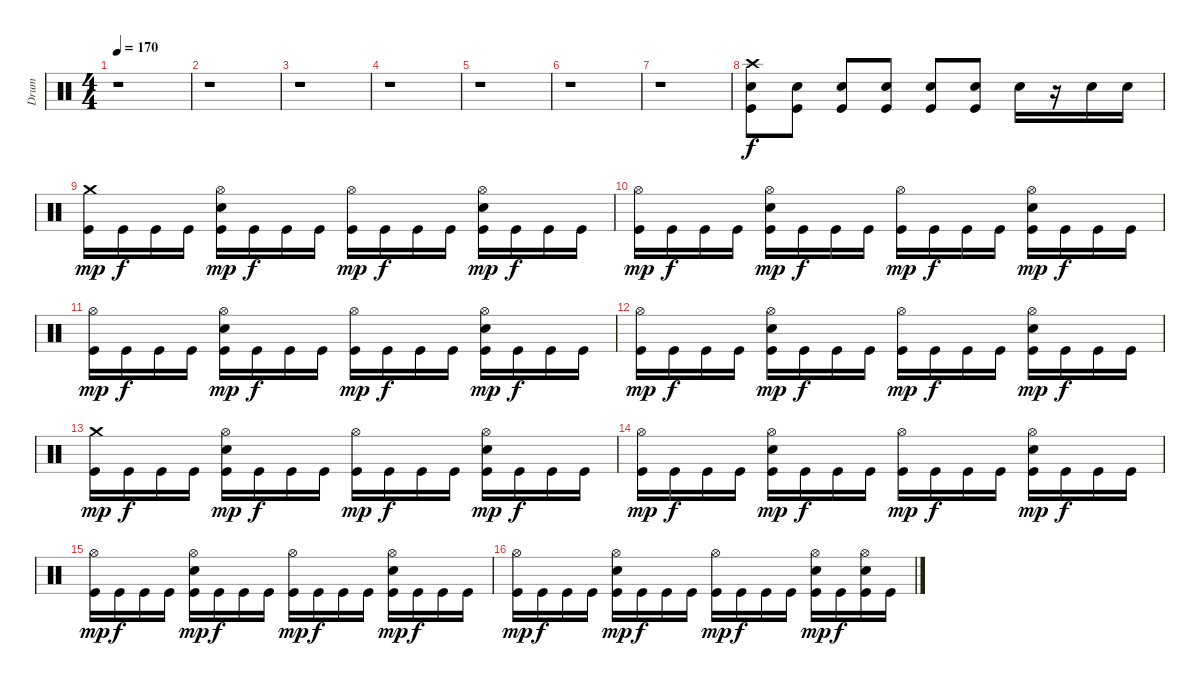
\track ("Drum" "Drum") {instrument percussion}
\staff {score}
\articulation defaults
\ts (4 4)
\tempo 170
\clef neutral
\ks c
r.1{dy f} |
r.1 |
r.1 |
r.1 |
r.1 |
r.1 |
r.1 |
("Crash high (hit)" "Snare (hit) 2" "Kick (hit)").8 ("Snare (hit) 2" "Kick (hit)").8 ("Snare (hit) 2" "Kick (hit)").8 ("Snare (hit) 2" "Kick (hit)").8 ("Snare (hit) 2" "Kick (hit)").8 ("Snare (hit) 2" "Kick (hit)").8 "Snare (hit) 2".16 r.16 "Snare (hit) 2".16 "Snare (hit) 2".16 |
("Crash medium (hit)" "Kick (hit)").16{dy mp} "Kick (hit)".16{dy f} "Kick (hit)".16 "Kick (hit)".16 ("Hi-Hat (open)" "Snare (hit) 2" "Kick (hit)").16{dy mp} "Kick (hit)".16{dy f} "Kick (hit)".16 "Kick (hit)".16 ("Hi-Hat (open)" "Kick (hit)").16{dy mp} "Kick (hit)".16{dy f} "Kick (hit)".16 "Kick (hit)".16 ("Hi-Hat (open)" "Snare (hit) 2" "Kick (hit)").16{dy mp} "Kick (hit)".16{dy f} "Kick (hit)".16 "Kick (hit)".16 |
("Hi-Hat (open)" "Kick (hit)").16{dy mp} "Kick (hit)".16{dy f} "Kick (hit)".16 "Kick (hit)".16 ("Hi-Hat (open)" "Snare (hit) 2" "Kick (hit)").16{dy mp} "Kick (hit)".16{dy f} "Kick (hit)".16 "Kick (hit)".16 ("Hi-Hat (open)" "Kick (hit)").16{dy mp} "Kick (hit)".16{dy f} "Kick (hit)".16 "Kick (hit)".16 ("Hi-Hat (open)" "Snare (hit) 2" "Kick (hit)").16{dy mp} "Kick (hit)".16{dy f} "Kick (hit)".16 "Kick (hit)".16 |
("Hi-Hat (open)" "Kick (hit)").16{dy mp} "Kick (hit)".16{dy f} "Kick (hit)".16 "Kick (hit)".16 ("Hi-Hat (open)" "Snare (hit) 2" "Kick (hit)").16{dy mp} "Kick (hit)".16{dy f} "Kick (hit)".16 "Kick (hit)".16 ("Hi-Hat (open)" "Kick (hit)").16{dy mp} "Kick (hit)".16{dy f} "Kick (hit)".16 "Kick (hit)".16 ("Hi-Hat (open)" "Snare (hit) 2" "Kick (hit)").16{dy mp} "Kick (hit)".16{dy f} "Kick (hit)".16 "Kick (hit)".16 |
("Hi-Hat (open)" "Kick (hit)").16{dy mp} "Kick (hit)".16{dy f} "Kick (hit)".16 "Kick (hit)".16 ("Hi-Hat (open)" "Snare (hit) 2" "Kick (hit)").16{dy mp} "Kick (hit)".16{dy f} "Kick (hit)".16 "Kick (hit)".16 ("Hi-Hat (open)" "Kick (hit)").16{dy mp} "Kick (hit)".16{dy f} "Kick (hit)".16 "Kick (hit)".16 ("Hi-Hat (open)" "Snare (hit) 2" "Kick (hit)").16{dy mp} "Kick (hit)".16{dy f} "Kick (hit)".16 "Kick (hit)".16 |
("Crash medium (hit)" "Kick (hit)").16{dy mp} "Kick (hit)".16{dy f} "Kick (hit)".16 "Kick (hit)".16 ("Hi-Hat (open)" "Snare (hit) 2" "Kick (hit)").16{dy mp} "Kick (hit)".16{dy f} "Kick (hit)".16 "Kick (hit)".16 ("Hi-Hat (open)" "Kick (hit)").16{dy mp} "Kick (hit)".16{dy f} "Kick (hit)".16 "Kick (hit)".16 ("Hi-Hat (open)" "Snare (hit) 2" "Kick (hit)").16{dy mp} "Kick (hit)".16{dy f} "Kick (hit)".16 "Kick (hit)".16 |
("Hi-Hat (open)" "Kick (hit)").16{dy mp} "Kick (hit)".16{dy f} "Kick (hit)".16 "Kick (hit)".16 ("Hi-Hat (open)" "Snare (hit) 2" "Kick (hit)").16{dy mp} "Kick (hit)".16{dy f} "Kick (hit)".16 "Kick (hit)".16 ("Hi-Hat (open)" "Kick (hit)").16{dy mp} "Kick (hit)".16{dy f} "Kick (hit)".16 "Kick (hit)".16 ("Hi-Hat (open)" "Snare (hit) 2" "Kick (hit)").16{dy mp} "Kick (hit)".16{dy f} "Kick (hit)".16 "Kick (hit)".16 |
("Hi-Hat (open)" "Kick (hit)").16{dy mp} "Kick (hit)".16{dy f} "Kick (hit)".16 "Kick (hit)".16 ("Hi-Hat (open)" "Snare (hit) 2" "Kick (hit)").16{dy mp} "Kick (hit)".16{dy f} "Kick (hit)".16 "Kick (hit)".16 ("Hi-Hat (open)" "Kick (hit)").16{dy mp} "Kick (hit)".16{dy f} "Kick (hit)".16 "Kick (hit)".16 ("Hi-Hat (open)" "Snare (hit) 2" "Kick (hit)").16{dy mp} "Kick (hit)".16{dy f} "Kick (hit)".16 "Kick (hit)".16 |
("Hi-Hat (open)" "Kick (hit)").16{dy mp} "Kick (hit)".16{dy f} "Kick (hit)".16 "Kick (hit)".16 ("Hi-Hat (open)" "Snare (hit) 2" "Kick (hit)").16{dy mp} "Kick (hit)".16{dy f} "Kick (hit)".16 "Kick (hit)".16 ("Hi-Hat (open)" "Kick (hit)").16{dy mp} "Kick (hit)".16{dy f} "Kick (hit)".16 "Kick (hit)".16 ("Hi-Hat (open)" "Snare (hit) 2" "Kick (hit)").16{dy mp} "Kick (hit)".16{dy f} ("Hi-Hat (open)" "Snare (hit) 2" "Kick (hit)").16 "Kick (hit)".16
